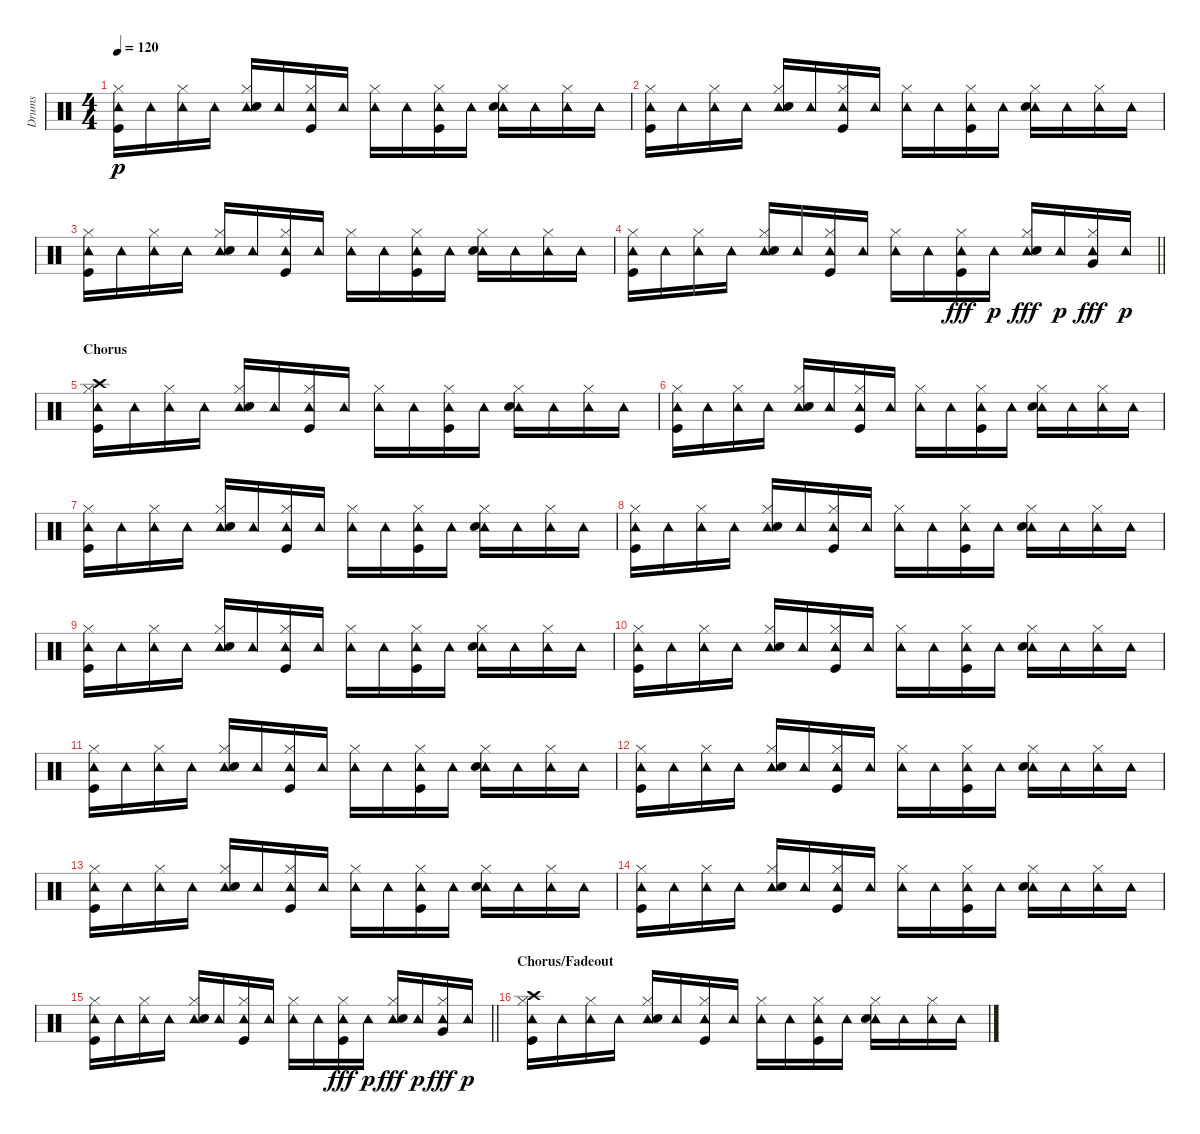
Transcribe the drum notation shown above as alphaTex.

\track ("Drums" "Drums") {instrument percussion}
\staff {score}
\articulation defaults
\ts (4 4)
\tempo 120
\clef neutral
\ks c
("Tambourine (hit)" "Hi-Hat (closed)" "Kick (hit)").16{dy p} "Tambourine (hit)".16 ("Tambourine (hit)" "Hi-Hat (closed)").16 "Tambourine (hit)".16 ("Tambourine (hit)" "Hi-Hat (closed)" "Snare (hit) 2").16 "Tambourine (hit)".16 ("Tambourine (hit)" "Hi-Hat (closed)" "Kick (hit)").16 "Tambourine (hit)".16 ("Tambourine (hit)" "Hi-Hat (closed)").16 "Tambourine (hit)".16 ("Tambourine (hit)" "Hi-Hat (closed)" "Kick (hit)").16 "Tambourine (hit)".16 ("Tambourine (hit)" "Hi-Hat (closed)" "Snare (hit) 2").16 "Tambourine (hit)".16 ("Tambourine (hit)" "Hi-Hat (closed)").16 "Tambourine (hit)".16 |
("Tambourine (hit)" "Hi-Hat (closed)" "Kick (hit)").16 "Tambourine (hit)".16 ("Tambourine (hit)" "Hi-Hat (closed)").16 "Tambourine (hit)".16 ("Tambourine (hit)" "Hi-Hat (closed)" "Snare (hit) 2").16 "Tambourine (hit)".16 ("Tambourine (hit)" "Hi-Hat (closed)" "Kick (hit)").16 "Tambourine (hit)".16 ("Tambourine (hit)" "Hi-Hat (closed)").16 "Tambourine (hit)".16 ("Tambourine (hit)" "Hi-Hat (closed)" "Kick (hit)").16 "Tambourine (hit)".16 ("Tambourine (hit)" "Hi-Hat (closed)" "Snare (hit) 2").16 "Tambourine (hit)".16 ("Tambourine (hit)" "Hi-Hat (closed)").16 "Tambourine (hit)".16 |
("Tambourine (hit)" "Hi-Hat (closed)" "Kick (hit)").16 "Tambourine (hit)".16 ("Tambourine (hit)" "Hi-Hat (closed)").16 "Tambourine (hit)".16 ("Tambourine (hit)" "Hi-Hat (closed)" "Snare (hit) 2").16 "Tambourine (hit)".16 ("Tambourine (hit)" "Hi-Hat (closed)" "Kick (hit)").16 "Tambourine (hit)".16 ("Tambourine (hit)" "Hi-Hat (closed)").16 "Tambourine (hit)".16 ("Tambourine (hit)" "Hi-Hat (closed)" "Kick (hit)").16 "Tambourine (hit)".16 ("Tambourine (hit)" "Hi-Hat (closed)" "Snare (hit) 2").16 "Tambourine (hit)".16 ("Tambourine (hit)" "Hi-Hat (closed)").16 "Tambourine (hit)".16 |
\barLineRight lightlight
("Tambourine (hit)" "Hi-Hat (closed)" "Kick (hit)").16 "Tambourine (hit)".16 ("Tambourine (hit)" "Hi-Hat (closed)").16 "Tambourine (hit)".16 ("Tambourine (hit)" "Hi-Hat (closed)" "Snare (hit) 2").16 "Tambourine (hit)".16 ("Tambourine (hit)" "Hi-Hat (closed)" "Kick (hit)").16 "Tambourine (hit)".16 ("Tambourine (hit)" "Hi-Hat (closed)").16 "Tambourine (hit)".16 ("Tambourine (hit)" "Hi-Hat (closed)" "Kick (hit)").16{dy fff} "Tambourine (hit)".16{dy p} ("Tambourine (hit)" "Hi-Hat (closed)" "Snare (hit) 2").16{dy fff} "Tambourine (hit)".16{dy p} ("Tambourine (hit)" "Hi-Hat (closed)" "Very Low Tom (hit)").16{dy fff} "Tambourine (hit)".16{dy p} |
\section ("" "Chorus")
("Crash high (hit)" "Tambourine (hit)" "Hi-Hat (closed)" "Kick (hit)").16 "Tambourine (hit)".16 ("Tambourine (hit)" "Hi-Hat (closed)").16 "Tambourine (hit)".16 ("Tambourine (hit)" "Hi-Hat (closed)" "Snare (hit) 2").16 "Tambourine (hit)".16 ("Tambourine (hit)" "Hi-Hat (closed)" "Kick (hit)").16 "Tambourine (hit)".16 ("Tambourine (hit)" "Hi-Hat (closed)").16 "Tambourine (hit)".16 ("Tambourine (hit)" "Hi-Hat (closed)" "Kick (hit)").16 "Tambourine (hit)".16 ("Tambourine (hit)" "Hi-Hat (closed)" "Snare (hit) 2").16 "Tambourine (hit)".16 ("Tambourine (hit)" "Hi-Hat (closed)").16 "Tambourine (hit)".16 |
("Tambourine (hit)" "Hi-Hat (closed)" "Kick (hit)").16 "Tambourine (hit)".16 ("Tambourine (hit)" "Hi-Hat (closed)").16 "Tambourine (hit)".16 ("Tambourine (hit)" "Hi-Hat (closed)" "Snare (hit) 2").16 "Tambourine (hit)".16 ("Tambourine (hit)" "Hi-Hat (closed)" "Kick (hit)").16 "Tambourine (hit)".16 ("Tambourine (hit)" "Hi-Hat (closed)").16 "Tambourine (hit)".16 ("Tambourine (hit)" "Hi-Hat (closed)" "Kick (hit)").16 "Tambourine (hit)".16 ("Tambourine (hit)" "Hi-Hat (closed)" "Snare (hit) 2").16 "Tambourine (hit)".16 ("Tambourine (hit)" "Hi-Hat (closed)").16 "Tambourine (hit)".16 |
("Tambourine (hit)" "Hi-Hat (closed)" "Kick (hit)").16 "Tambourine (hit)".16 ("Tambourine (hit)" "Hi-Hat (closed)").16 "Tambourine (hit)".16 ("Tambourine (hit)" "Hi-Hat (closed)" "Snare (hit) 2").16 "Tambourine (hit)".16 ("Tambourine (hit)" "Hi-Hat (closed)" "Kick (hit)").16 "Tambourine (hit)".16 ("Tambourine (hit)" "Hi-Hat (closed)").16 "Tambourine (hit)".16 ("Tambourine (hit)" "Hi-Hat (closed)" "Kick (hit)").16 "Tambourine (hit)".16 ("Tambourine (hit)" "Hi-Hat (closed)" "Snare (hit) 2").16 "Tambourine (hit)".16 ("Tambourine (hit)" "Hi-Hat (closed)").16 "Tambourine (hit)".16 |
("Tambourine (hit)" "Hi-Hat (closed)" "Kick (hit)").16 "Tambourine (hit)".16 ("Tambourine (hit)" "Hi-Hat (closed)").16 "Tambourine (hit)".16 ("Tambourine (hit)" "Hi-Hat (closed)" "Snare (hit) 2").16 "Tambourine (hit)".16 ("Tambourine (hit)" "Hi-Hat (closed)" "Kick (hit)").16 "Tambourine (hit)".16 ("Tambourine (hit)" "Hi-Hat (closed)").16 "Tambourine (hit)".16 ("Tambourine (hit)" "Hi-Hat (closed)" "Kick (hit)").16 "Tambourine (hit)".16 ("Tambourine (hit)" "Hi-Hat (closed)" "Snare (hit) 2").16 "Tambourine (hit)".16 ("Tambourine (hit)" "Hi-Hat (closed)").16 "Tambourine (hit)".16 |
("Tambourine (hit)" "Hi-Hat (closed)" "Kick (hit)").16 "Tambourine (hit)".16 ("Tambourine (hit)" "Hi-Hat (closed)").16 "Tambourine (hit)".16 ("Tambourine (hit)" "Hi-Hat (closed)" "Snare (hit) 2").16 "Tambourine (hit)".16 ("Tambourine (hit)" "Hi-Hat (closed)" "Kick (hit)").16 "Tambourine (hit)".16 ("Tambourine (hit)" "Hi-Hat (closed)").16 "Tambourine (hit)".16 ("Tambourine (hit)" "Hi-Hat (closed)" "Kick (hit)").16 "Tambourine (hit)".16 ("Tambourine (hit)" "Hi-Hat (closed)" "Snare (hit) 2").16 "Tambourine (hit)".16 ("Tambourine (hit)" "Hi-Hat (closed)").16 "Tambourine (hit)".16 |
("Tambourine (hit)" "Hi-Hat (closed)" "Kick (hit)").16 "Tambourine (hit)".16 ("Tambourine (hit)" "Hi-Hat (closed)").16 "Tambourine (hit)".16 ("Tambourine (hit)" "Hi-Hat (closed)" "Snare (hit) 2").16 "Tambourine (hit)".16 ("Tambourine (hit)" "Hi-Hat (closed)" "Kick (hit)").16 "Tambourine (hit)".16 ("Tambourine (hit)" "Hi-Hat (closed)").16 "Tambourine (hit)".16 ("Tambourine (hit)" "Hi-Hat (closed)" "Kick (hit)").16 "Tambourine (hit)".16 ("Tambourine (hit)" "Hi-Hat (closed)" "Snare (hit) 2").16 "Tambourine (hit)".16 ("Tambourine (hit)" "Hi-Hat (closed)").16 "Tambourine (hit)".16 |
("Tambourine (hit)" "Hi-Hat (closed)" "Kick (hit)").16 "Tambourine (hit)".16 ("Tambourine (hit)" "Hi-Hat (closed)").16 "Tambourine (hit)".16 ("Tambourine (hit)" "Hi-Hat (closed)" "Snare (hit) 2").16 "Tambourine (hit)".16 ("Tambourine (hit)" "Hi-Hat (closed)" "Kick (hit)").16 "Tambourine (hit)".16 ("Tambourine (hit)" "Hi-Hat (closed)").16 "Tambourine (hit)".16 ("Tambourine (hit)" "Hi-Hat (closed)" "Kick (hit)").16 "Tambourine (hit)".16 ("Tambourine (hit)" "Hi-Hat (closed)" "Snare (hit) 2").16 "Tambourine (hit)".16 ("Tambourine (hit)" "Hi-Hat (closed)").16 "Tambourine (hit)".16 |
("Tambourine (hit)" "Hi-Hat (closed)" "Kick (hit)").16 "Tambourine (hit)".16 ("Tambourine (hit)" "Hi-Hat (closed)").16 "Tambourine (hit)".16 ("Tambourine (hit)" "Hi-Hat (closed)" "Snare (hit) 2").16 "Tambourine (hit)".16 ("Tambourine (hit)" "Hi-Hat (closed)" "Kick (hit)").16 "Tambourine (hit)".16 ("Tambourine (hit)" "Hi-Hat (closed)").16 "Tambourine (hit)".16 ("Tambourine (hit)" "Hi-Hat (closed)" "Kick (hit)").16 "Tambourine (hit)".16 ("Tambourine (hit)" "Hi-Hat (closed)" "Snare (hit) 2").16 "Tambourine (hit)".16 ("Tambourine (hit)" "Hi-Hat (closed)").16 "Tambourine (hit)".16 |
("Tambourine (hit)" "Hi-Hat (closed)" "Kick (hit)").16 "Tambourine (hit)".16 ("Tambourine (hit)" "Hi-Hat (closed)").16 "Tambourine (hit)".16 ("Tambourine (hit)" "Hi-Hat (closed)" "Snare (hit) 2").16 "Tambourine (hit)".16 ("Tambourine (hit)" "Hi-Hat (closed)" "Kick (hit)").16 "Tambourine (hit)".16 ("Tambourine (hit)" "Hi-Hat (closed)").16 "Tambourine (hit)".16 ("Tambourine (hit)" "Hi-Hat (closed)" "Kick (hit)").16 "Tambourine (hit)".16 ("Tambourine (hit)" "Hi-Hat (closed)" "Snare (hit) 2").16 "Tambourine (hit)".16 ("Tambourine (hit)" "Hi-Hat (closed)").16 "Tambourine (hit)".16 |
("Tambourine (hit)" "Hi-Hat (closed)" "Kick (hit)").16 "Tambourine (hit)".16 ("Tambourine (hit)" "Hi-Hat (closed)").16 "Tambourine (hit)".16 ("Tambourine (hit)" "Hi-Hat (closed)" "Snare (hit) 2").16 "Tambourine (hit)".16 ("Tambourine (hit)" "Hi-Hat (closed)" "Kick (hit)").16 "Tambourine (hit)".16 ("Tambourine (hit)" "Hi-Hat (closed)").16 "Tambourine (hit)".16 ("Tambourine (hit)" "Hi-Hat (closed)" "Kick (hit)").16 "Tambourine (hit)".16 ("Tambourine (hit)" "Hi-Hat (closed)" "Snare (hit) 2").16 "Tambourine (hit)".16 ("Tambourine (hit)" "Hi-Hat (closed)").16 "Tambourine (hit)".16 |
\barLineRight lightlight
("Tambourine (hit)" "Hi-Hat (closed)" "Kick (hit)").16 "Tambourine (hit)".16 ("Tambourine (hit)" "Hi-Hat (closed)").16 "Tambourine (hit)".16 ("Tambourine (hit)" "Hi-Hat (closed)" "Snare (hit) 2").16 "Tambourine (hit)".16 ("Tambourine (hit)" "Hi-Hat (closed)" "Kick (hit)").16 "Tambourine (hit)".16 ("Tambourine (hit)" "Hi-Hat (closed)").16 "Tambourine (hit)".16 ("Tambourine (hit)" "Hi-Hat (closed)" "Kick (hit)").16{dy fff} "Tambourine (hit)".16{dy p} ("Tambourine (hit)" "Hi-Hat (closed)" "Snare (hit) 2").16{dy fff} "Tambourine (hit)".16{dy p} ("Tambourine (hit)" "Hi-Hat (closed)" "Very Low Tom (hit)").16{dy fff} "Tambourine (hit)".16{dy p} |
\section ("" "Chorus/Fadeout")
("Crash high (hit)" "Tambourine (hit)" "Hi-Hat (closed)" "Kick (hit)").16 "Tambourine (hit)".16 ("Tambourine (hit)" "Hi-Hat (closed)").16 "Tambourine (hit)".16 ("Tambourine (hit)" "Hi-Hat (closed)" "Snare (hit) 2").16 "Tambourine (hit)".16 ("Tambourine (hit)" "Hi-Hat (closed)" "Kick (hit)").16 "Tambourine (hit)".16 ("Tambourine (hit)" "Hi-Hat (closed)").16 "Tambourine (hit)".16 ("Tambourine (hit)" "Hi-Hat (closed)" "Kick (hit)").16 "Tambourine (hit)".16 ("Tambourine (hit)" "Hi-Hat (closed)" "Snare (hit) 2").16 "Tambourine (hit)".16 ("Tambourine (hit)" "Hi-Hat (closed)").16 "Tambourine (hit)".16
